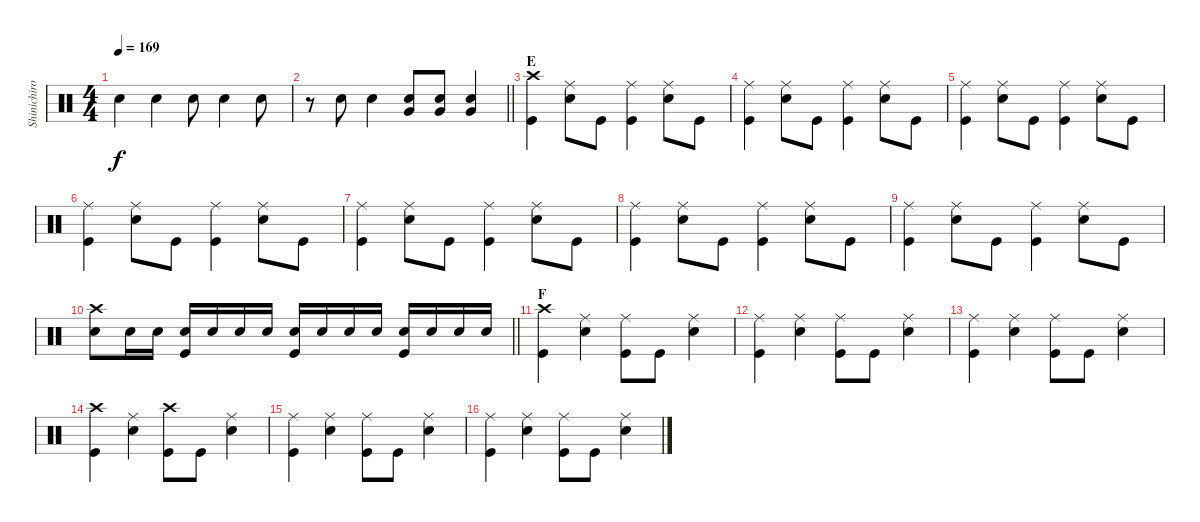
\track ("Shinichiro Sato drums" "Shinichiro") {instrument percussion}
\staff {score}
\articulation defaults
\ts (4 4)
\tempo 169
\clef neutral
\ks c "Snare (hit) 2".4{dy f} "Snare (hit) 2".4 "Snare (hit) 2".8 "Snare (hit) 2".4 "Snare (hit) 2".8
|
\barLineRight lightlight
r.8 "Snare (hit) 2".8 "Snare (hit) 2".4 ("Snare (hit) 2" "Very Low Tom (hit)").8 ("Snare (hit) 2" "Very Low Tom (hit)").8 ("Snare (hit) 2" "Very Low Tom (hit)").4 |
\section ("" "E")
("Crash high (hit)" "Kick (hit)").4 ("Ride (middle)" "Snare (hit) 2").8 "Kick (hit)".8 ("Ride (middle)" "Kick (hit)").4 ("Ride (middle)" "Snare (hit) 2").8 "Kick (hit)".8 |
("Ride (middle)" "Kick (hit)").4 ("Ride (middle)" "Snare (hit) 2").8 "Kick (hit)".8 ("Ride (middle)" "Kick (hit)").4 ("Ride (middle)" "Snare (hit) 2").8 "Kick (hit)".8 |
("Ride (middle)" "Kick (hit)").4 ("Ride (middle)" "Snare (hit) 2").8 "Kick (hit)".8 ("Ride (middle)" "Kick (hit)").4 ("Ride (middle)" "Snare (hit) 2").8 "Kick (hit)".8 |
("Ride (middle)" "Kick (hit)").4 ("Ride (middle)" "Snare (hit) 2").8 "Kick (hit)".8 ("Ride (middle)" "Kick (hit)").4 ("Ride (middle)" "Snare (hit) 2").8 "Kick (hit)".8 |
("Ride (middle)" "Kick (hit)").4 ("Ride (middle)" "Snare (hit) 2").8 "Kick (hit)".8 ("Ride (middle)" "Kick (hit)").4 ("Ride (middle)" "Snare (hit) 2").8 "Kick (hit)".8 |
("Ride (middle)" "Kick (hit)").4 ("Ride (middle)" "Snare (hit) 2").8 "Kick (hit)".8 ("Ride (middle)" "Kick (hit)").4 ("Ride (middle)" "Snare (hit) 2").8 "Kick (hit)".8 |
("Ride (middle)" "Kick (hit)").4 ("Ride (middle)" "Snare (hit) 2").8 "Kick (hit)".8 ("Ride (middle)" "Kick (hit)").4 ("Ride (middle)" "Snare (hit) 2").8 "Kick (hit)".8 |
\barLineRight lightlight
("Crash high (hit)" "Snare (hit) 2").8 "Snare (hit) 2".16 "Snare (hit) 2".16 ("Snare (hit) 2" "Kick (hit)").16 "Snare (hit) 2".16 "Snare (hit) 2".16 "Snare (hit) 2".16 ("Snare (hit) 2" "Kick (hit)").16 "Snare (hit) 2".16 "Snare (hit) 2".16 "Snare (hit) 2".16 ("Snare (hit) 2" "Kick (hit)").16 "Snare (hit) 2".16 "Snare (hit) 2".16 "Snare (hit) 2".16 |
\section ("" "F")
("Crash high (hit)" "Kick (hit)").4 ("Ride (middle)" "Snare (hit) 2").4 ("Ride (middle)" "Kick (hit)").8 "Kick (hit)".8 ("Ride (middle)" "Snare (hit) 2").4 |
("Ride (middle)" "Kick (hit)").4 ("Ride (middle)" "Snare (hit) 2").4 ("Ride (middle)" "Kick (hit)").8 "Kick (hit)".8 ("Ride (middle)" "Snare (hit) 2").4 |
("Ride (middle)" "Kick (hit)").4 ("Ride (middle)" "Snare (hit) 2").4 ("Ride (middle)" "Kick (hit)").8 "Kick (hit)".8 ("Ride (middle)" "Snare (hit) 2").4 |
("Crash high (hit)" "Kick (hit)").4 ("Ride (middle)" "Snare (hit) 2").4 ("Crash high (hit)" "Kick (hit)").8 "Kick (hit)".8 ("Ride (middle)" "Snare (hit) 2").4 |
("Ride (middle)" "Kick (hit)").4 ("Ride (middle)" "Snare (hit) 2").4 ("Ride (middle)" "Kick (hit)").8 "Kick (hit)".8 ("Ride (middle)" "Snare (hit) 2").4 |
("Ride (middle)" "Kick (hit)").4 ("Ride (middle)" "Snare (hit) 2").4 ("Ride (middle)" "Kick (hit)").8 "Kick (hit)".8 ("Ride (middle)" "Snare (hit) 2").4
